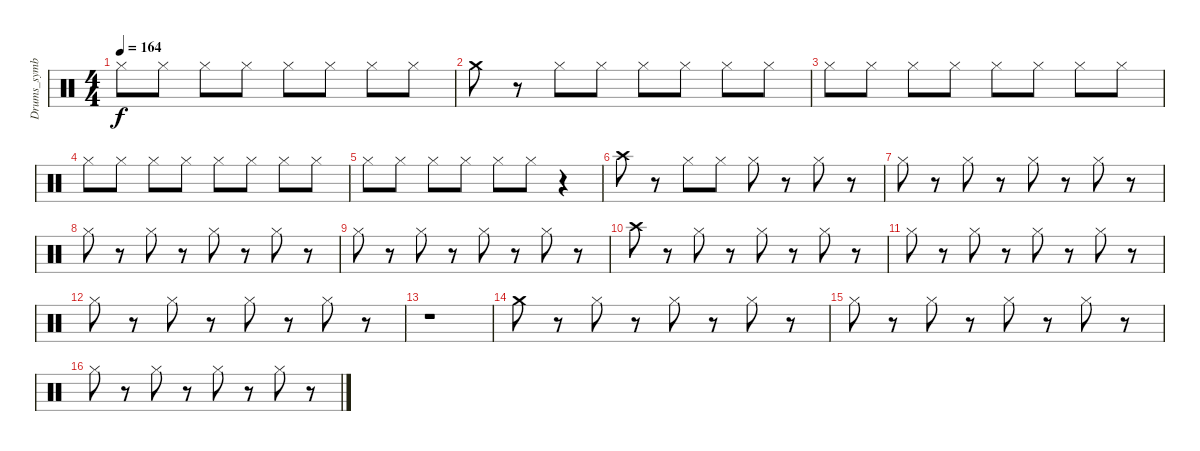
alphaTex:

\track ("Drums_symbal" "Drums_symb") {instrument percussion}
\staff {score}
\articulation defaults
\ts (4 4)
\tempo 164
\clef neutral
\ks c "Hi-Hat (closed)".8{dy f} "Hi-Hat (closed)".8 "Hi-Hat (closed)".8 "Hi-Hat (closed)".8 "Hi-Hat (closed)".8 "Hi-Hat (closed)".8 "Hi-Hat (closed)".8 "Hi-Hat (closed)".8
|
"Crash medium (hit)".8 r.8 "Hi-Hat (closed)".8 "Hi-Hat (closed)".8 "Hi-Hat (closed)".8 "Hi-Hat (closed)".8 "Hi-Hat (closed)".8 "Hi-Hat (closed)".8 |
"Hi-Hat (closed)".8 "Hi-Hat (closed)".8 "Hi-Hat (closed)".8 "Hi-Hat (closed)".8 "Hi-Hat (closed)".8 "Hi-Hat (closed)".8 "Hi-Hat (closed)".8 "Hi-Hat (closed)".8 |
"Hi-Hat (closed)".8 "Hi-Hat (closed)".8 "Hi-Hat (closed)".8 "Hi-Hat (closed)".8 "Hi-Hat (closed)".8 "Hi-Hat (closed)".8 "Hi-Hat (closed)".8 "Hi-Hat (closed)".8 |
"Hi-Hat (closed)".8 "Hi-Hat (closed)".8 "Hi-Hat (closed)".8 "Hi-Hat (closed)".8 "Hi-Hat (closed)".8 "Hi-Hat (closed)".8 r.4 |
"Crash high (hit)".8 r.8 "Hi-Hat (closed)".8 "Hi-Hat (closed)".8 "Hi-Hat (closed)".8 r.8 "Hi-Hat (closed)".8 r.8 |
"Hi-Hat (closed)".8 r.8 "Hi-Hat (closed)".8 r.8 "Hi-Hat (closed)".8 r.8 "Hi-Hat (closed)".8 r.8 |
"Hi-Hat (closed)".8 r.8 "Hi-Hat (closed)".8 r.8 "Hi-Hat (closed)".8 r.8 "Hi-Hat (closed)".8 r.8 |
"Hi-Hat (closed)".8 r.8 "Hi-Hat (closed)".8 r.8 "Hi-Hat (closed)".8 r.8 "Hi-Hat (closed)".8 r.8 |
"Crash high (hit)".8 r.8 "Hi-Hat (closed)".8 r.8 "Hi-Hat (closed)".8 r.8 "Hi-Hat (closed)".8 r.8 |
"Hi-Hat (closed)".8 r.8 "Hi-Hat (closed)".8 r.8 "Hi-Hat (closed)".8 r.8 "Hi-Hat (closed)".8 r.8 |
"Hi-Hat (closed)".8 r.8 "Hi-Hat (closed)".8 r.8 "Hi-Hat (closed)".8 r.8 "Hi-Hat (closed)".8 r.8 |
r.1 |
"Crash medium (hit)".8 r.8 "Hi-Hat (closed)".8 r.8 "Hi-Hat (closed)".8 r.8 "Hi-Hat (closed)".8 r.8 |
"Hi-Hat (closed)".8 r.8 "Hi-Hat (closed)".8 r.8 "Hi-Hat (closed)".8 r.8 "Hi-Hat (closed)".8 r.8 |
"Hi-Hat (closed)".8 r.8 "Hi-Hat (closed)".8 r.8 "Hi-Hat (closed)".8 r.8 "Hi-Hat (closed)".8 r.8
